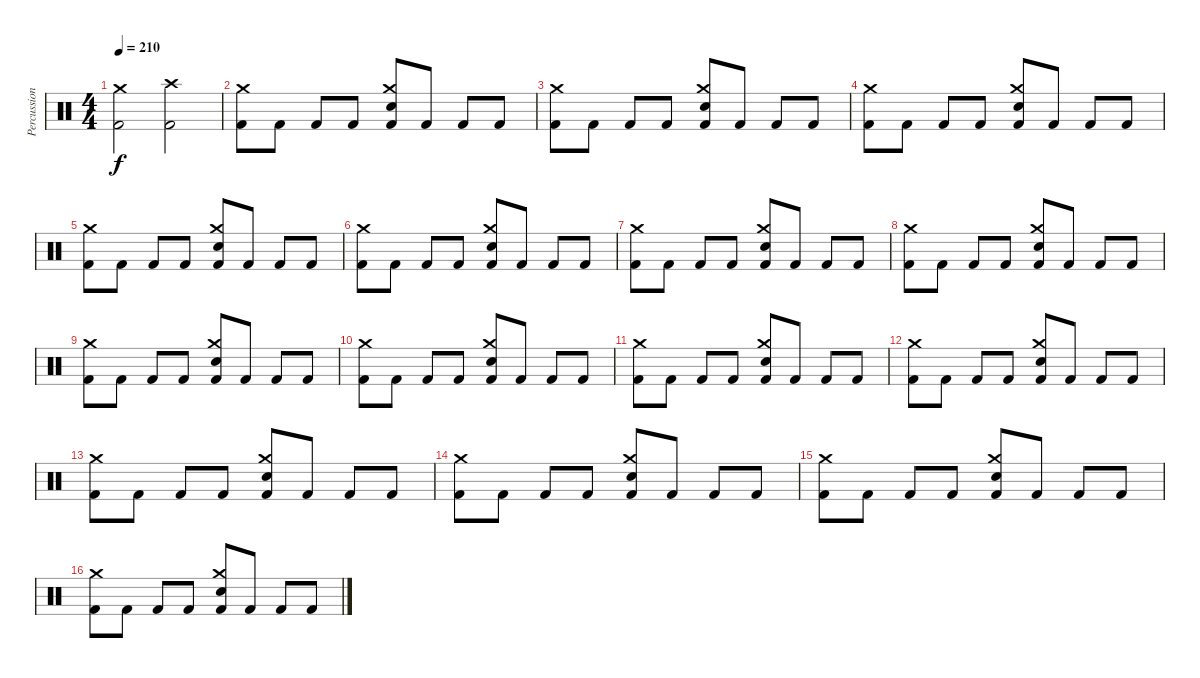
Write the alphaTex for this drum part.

\track ("Percussions" "Percussion") {instrument percussion}
\staff {score}
\articulation defaults
\ts (4 4)
\tempo 210
\clef neutral
\ks c
("Kick (hit) 2" "Crash medium (hit)").2{dy f} ("Kick (hit) 2" "Crash high (hit)").2 |
("Kick (hit) 2" "Crash medium (hit)").8 "Kick (hit) 2".8 "Kick (hit) 2".8 "Kick (hit) 2".8 ("Kick (hit) 2" "Electric Snare (hit)" "Crash medium (hit)").8 "Kick (hit) 2".8 "Kick (hit) 2".8 "Kick (hit) 2".8 |
("Kick (hit) 2" "Crash medium (hit)").8 "Kick (hit) 2".8 "Kick (hit) 2".8 "Kick (hit) 2".8 ("Kick (hit) 2" "Electric Snare (hit)" "Crash medium (hit)").8 "Kick (hit) 2".8 "Kick (hit) 2".8 "Kick (hit) 2".8 |
("Kick (hit) 2" "Crash medium (hit)").8 "Kick (hit) 2".8 "Kick (hit) 2".8 "Kick (hit) 2".8 ("Kick (hit) 2" "Electric Snare (hit)" "Crash medium (hit)").8 "Kick (hit) 2".8 "Kick (hit) 2".8 "Kick (hit) 2".8 |
("Kick (hit) 2" "Crash medium (hit)").8 "Kick (hit) 2".8 "Kick (hit) 2".8 "Kick (hit) 2".8 ("Kick (hit) 2" "Electric Snare (hit)" "Crash medium (hit)").8 "Kick (hit) 2".8 "Kick (hit) 2".8 "Kick (hit) 2".8 |
("Kick (hit) 2" "Crash medium (hit)").8 "Kick (hit) 2".8 "Kick (hit) 2".8 "Kick (hit) 2".8 ("Kick (hit) 2" "Electric Snare (hit)" "Crash medium (hit)").8 "Kick (hit) 2".8 "Kick (hit) 2".8 "Kick (hit) 2".8 |
("Kick (hit) 2" "Crash medium (hit)").8 "Kick (hit) 2".8 "Kick (hit) 2".8 "Kick (hit) 2".8 ("Kick (hit) 2" "Electric Snare (hit)" "Crash medium (hit)").8 "Kick (hit) 2".8 "Kick (hit) 2".8 "Kick (hit) 2".8 |
("Kick (hit) 2" "Crash medium (hit)").8 "Kick (hit) 2".8 "Kick (hit) 2".8 "Kick (hit) 2".8 ("Kick (hit) 2" "Electric Snare (hit)" "Crash medium (hit)").8 "Kick (hit) 2".8 "Kick (hit) 2".8 "Kick (hit) 2".8 |
("Kick (hit) 2" "Crash medium (hit)").8 "Kick (hit) 2".8 "Kick (hit) 2".8 "Kick (hit) 2".8 ("Kick (hit) 2" "Electric Snare (hit)" "Crash medium (hit)").8 "Kick (hit) 2".8 "Kick (hit) 2".8 "Kick (hit) 2".8 |
("Kick (hit) 2" "Crash medium (hit)").8 "Kick (hit) 2".8 "Kick (hit) 2".8 "Kick (hit) 2".8 ("Kick (hit) 2" "Electric Snare (hit)" "Crash medium (hit)").8 "Kick (hit) 2".8 "Kick (hit) 2".8 "Kick (hit) 2".8 |
("Kick (hit) 2" "Crash medium (hit)").8 "Kick (hit) 2".8 "Kick (hit) 2".8 "Kick (hit) 2".8 ("Kick (hit) 2" "Electric Snare (hit)" "Crash medium (hit)").8 "Kick (hit) 2".8 "Kick (hit) 2".8 "Kick (hit) 2".8 |
("Kick (hit) 2" "Crash medium (hit)").8 "Kick (hit) 2".8 "Kick (hit) 2".8 "Kick (hit) 2".8 ("Kick (hit) 2" "Electric Snare (hit)" "Crash medium (hit)").8 "Kick (hit) 2".8 "Kick (hit) 2".8 "Kick (hit) 2".8 |
("Kick (hit) 2" "Crash medium (hit)").8 "Kick (hit) 2".8 "Kick (hit) 2".8 "Kick (hit) 2".8 ("Kick (hit) 2" "Electric Snare (hit)" "Crash medium (hit)").8 "Kick (hit) 2".8 "Kick (hit) 2".8 "Kick (hit) 2".8 |
("Kick (hit) 2" "Crash medium (hit)").8 "Kick (hit) 2".8 "Kick (hit) 2".8 "Kick (hit) 2".8 ("Kick (hit) 2" "Electric Snare (hit)" "Crash medium (hit)").8 "Kick (hit) 2".8 "Kick (hit) 2".8 "Kick (hit) 2".8 |
("Kick (hit) 2" "Crash medium (hit)").8 "Kick (hit) 2".8 "Kick (hit) 2".8 "Kick (hit) 2".8 ("Kick (hit) 2" "Electric Snare (hit)" "Crash medium (hit)").8 "Kick (hit) 2".8 "Kick (hit) 2".8 "Kick (hit) 2".8 |
("Kick (hit) 2" "Crash medium (hit)").8 "Kick (hit) 2".8 "Kick (hit) 2".8 "Kick (hit) 2".8 ("Kick (hit) 2" "Electric Snare (hit)" "Crash medium (hit)").8 "Kick (hit) 2".8 "Kick (hit) 2".8 "Kick (hit) 2".8
